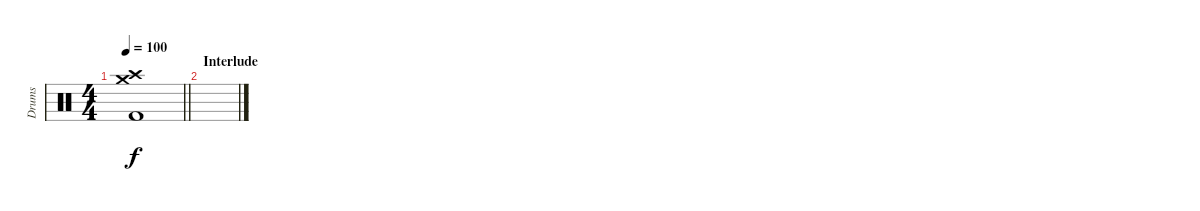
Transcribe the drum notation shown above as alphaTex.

\track ("Drums" "Drums") {instrument percussion}
\staff {score}
\articulation defaults
\ts (4 4)
\tempo 100
\clef neutral
\barLineRight lightlight
\ks c
("Kick (hit) 2" "Crash high (hit)" "Crash medium (hit)").1{dy f} |
\section ("" "Interlude")
